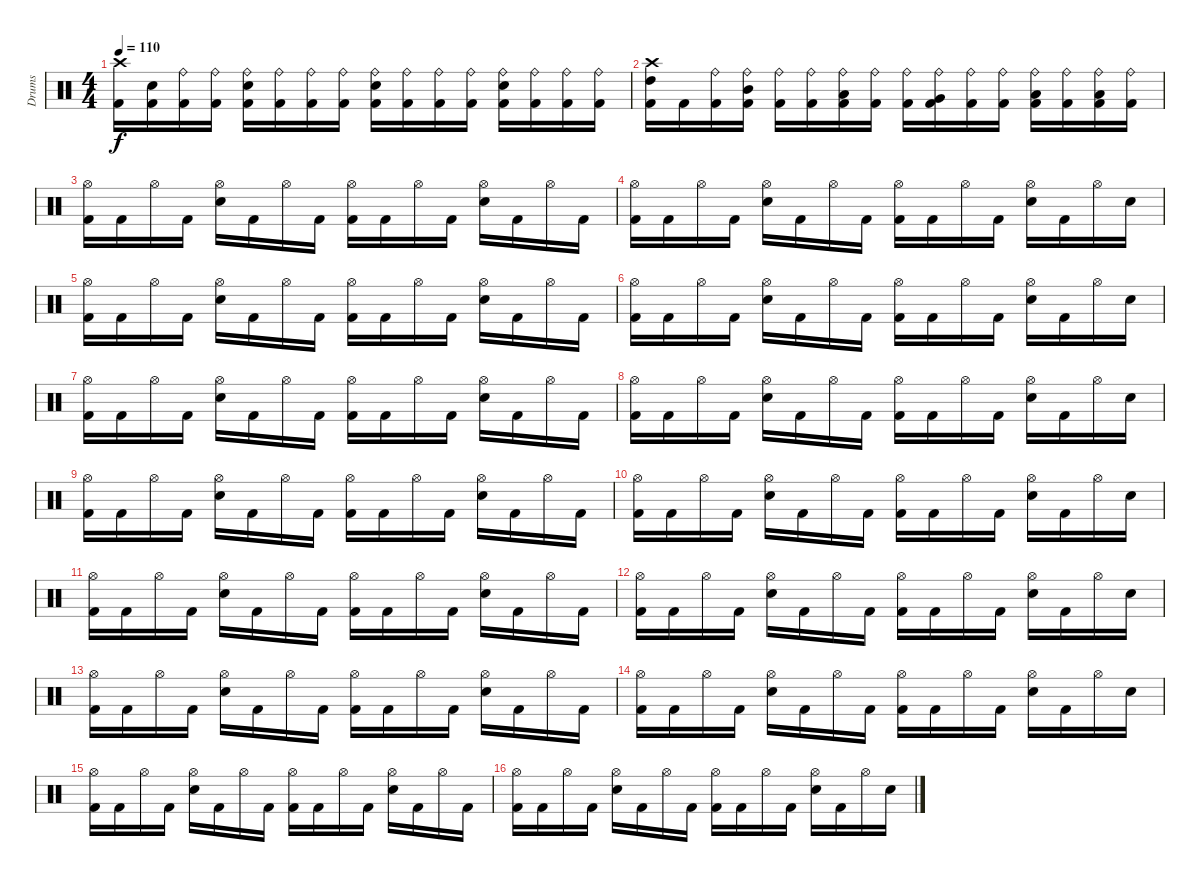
\track ("Drums" "Drums") {instrument percussion}
\staff {score}
\articulation defaults
\ts (4 4)
\tempo 110
\clef neutral
\ks c
("Crash high (hit)" "Kick (hit) 2").16{dy f} ("Electric Snare (hit)" "Kick (hit) 2").16 ("Ride (bell)" "Kick (hit) 2").16 ("Ride (bell)" "Kick (hit) 2").16 ("Ride (bell)" "Electric Snare (hit)" "Kick (hit) 2").16 ("Ride (bell)" "Kick (hit) 2").16 ("Ride (bell)" "Kick (hit) 2").16 ("Ride (bell)" "Kick (hit) 2").16 ("Ride (bell)" "Electric Snare (hit)" "Kick (hit) 2").16 ("Ride (bell)" "Kick (hit) 2").16 ("Ride (bell)" "Kick (hit) 2").16 ("Ride (bell)" "Kick (hit) 2").16 ("Ride (bell)" "Electric Snare (hit)" "Kick (hit) 2").16 ("Ride (bell)" "Kick (hit) 2").16 ("Ride (bell)" "Kick (hit) 2").16 ("Ride (bell)" "Kick (hit) 2").16 |
("Crash high (hit)" "High Tom (hit)" "Kick (hit) 2").16 "Kick (hit) 2".16 ("Ride (bell)" "Kick (hit) 2").16 ("Ride (bell)" "Mid Tom (hit)" "Kick (hit) 2").16 ("Ride (bell)" "Kick (hit) 2").16 ("Ride (bell)" "Kick (hit) 2").16 ("Ride (bell)" "Low Tom (hit)" "Kick (hit) 2").16 ("Ride (bell)" "Kick (hit) 2").16 ("Ride (bell)" "Kick (hit) 2").16 ("Ride (bell)" "Very Low Tom (hit)" "Kick (hit) 2").16 ("Ride (bell)" "Kick (hit) 2").16 ("Ride (bell)" "Kick (hit) 2").16 ("Ride (bell)" "Low Floor Tom (hit)" "Kick (hit) 2").16 ("Ride (bell)" "Kick (hit) 2").16 ("Ride (bell)" "Low Floor Tom (hit)" "Kick (hit) 2").16 ("Ride (bell)" "Kick (hit) 2").16 |
("Hi-Hat (open)" "Kick (hit) 2").16 "Kick (hit) 2".16 "Hi-Hat (open)".16 "Kick (hit) 2".16 ("Hi-Hat (open)" "Electric Snare (hit)").16 "Kick (hit) 2".16 "Hi-Hat (open)".16 "Kick (hit) 2".16 ("Hi-Hat (open)" "Kick (hit) 2").16 "Kick (hit) 2".16 "Hi-Hat (open)".16 "Kick (hit) 2".16 ("Hi-Hat (open)" "Electric Snare (hit)").16 "Kick (hit) 2".16 "Hi-Hat (open)".16 "Kick (hit) 2".16 |
("Hi-Hat (open)" "Kick (hit) 2").16 "Kick (hit) 2".16 "Hi-Hat (open)".16 "Kick (hit) 2".16 ("Hi-Hat (open)" "Electric Snare (hit)").16 "Kick (hit) 2".16 "Hi-Hat (open)".16 "Kick (hit) 2".16 ("Hi-Hat (open)" "Kick (hit) 2").16 "Kick (hit) 2".16 "Hi-Hat (open)".16 "Kick (hit) 2".16 ("Hi-Hat (open)" "Electric Snare (hit)").16 "Kick (hit) 2".16 "Hi-Hat (open)".16 "Electric Snare (hit)".16 |
("Hi-Hat (open)" "Kick (hit) 2").16 "Kick (hit) 2".16 "Hi-Hat (open)".16 "Kick (hit) 2".16 ("Hi-Hat (open)" "Electric Snare (hit)").16 "Kick (hit) 2".16 "Hi-Hat (open)".16 "Kick (hit) 2".16 ("Hi-Hat (open)" "Kick (hit) 2").16 "Kick (hit) 2".16 "Hi-Hat (open)".16 "Kick (hit) 2".16 ("Hi-Hat (open)" "Electric Snare (hit)").16 "Kick (hit) 2".16 "Hi-Hat (open)".16 "Kick (hit) 2".16 |
("Hi-Hat (open)" "Kick (hit) 2").16 "Kick (hit) 2".16 "Hi-Hat (open)".16 "Kick (hit) 2".16 ("Hi-Hat (open)" "Electric Snare (hit)").16 "Kick (hit) 2".16 "Hi-Hat (open)".16 "Kick (hit) 2".16 ("Hi-Hat (open)" "Kick (hit) 2").16 "Kick (hit) 2".16 "Hi-Hat (open)".16 "Kick (hit) 2".16 ("Hi-Hat (open)" "Electric Snare (hit)").16 "Kick (hit) 2".16 "Hi-Hat (open)".16 "Electric Snare (hit)".16 |
("Hi-Hat (open)" "Kick (hit) 2").16 "Kick (hit) 2".16 "Hi-Hat (open)".16 "Kick (hit) 2".16 ("Hi-Hat (open)" "Electric Snare (hit)").16 "Kick (hit) 2".16 "Hi-Hat (open)".16 "Kick (hit) 2".16 ("Hi-Hat (open)" "Kick (hit) 2").16 "Kick (hit) 2".16 "Hi-Hat (open)".16 "Kick (hit) 2".16 ("Hi-Hat (open)" "Electric Snare (hit)").16 "Kick (hit) 2".16 "Hi-Hat (open)".16 "Kick (hit) 2".16 |
("Hi-Hat (open)" "Kick (hit) 2").16 "Kick (hit) 2".16 "Hi-Hat (open)".16 "Kick (hit) 2".16 ("Hi-Hat (open)" "Electric Snare (hit)").16 "Kick (hit) 2".16 "Hi-Hat (open)".16 "Kick (hit) 2".16 ("Hi-Hat (open)" "Kick (hit) 2").16 "Kick (hit) 2".16 "Hi-Hat (open)".16 "Kick (hit) 2".16 ("Hi-Hat (open)" "Electric Snare (hit)").16 "Kick (hit) 2".16 "Hi-Hat (open)".16 "Electric Snare (hit)".16 |
("Hi-Hat (open)" "Kick (hit) 2").16 "Kick (hit) 2".16 "Hi-Hat (open)".16 "Kick (hit) 2".16 ("Hi-Hat (open)" "Electric Snare (hit)").16 "Kick (hit) 2".16 "Hi-Hat (open)".16 "Kick (hit) 2".16 ("Hi-Hat (open)" "Kick (hit) 2").16 "Kick (hit) 2".16 "Hi-Hat (open)".16 "Kick (hit) 2".16 ("Hi-Hat (open)" "Electric Snare (hit)").16 "Kick (hit) 2".16 "Hi-Hat (open)".16 "Kick (hit) 2".16 |
("Hi-Hat (open)" "Kick (hit) 2").16 "Kick (hit) 2".16 "Hi-Hat (open)".16 "Kick (hit) 2".16 ("Hi-Hat (open)" "Electric Snare (hit)").16 "Kick (hit) 2".16 "Hi-Hat (open)".16 "Kick (hit) 2".16 ("Hi-Hat (open)" "Kick (hit) 2").16 "Kick (hit) 2".16 "Hi-Hat (open)".16 "Kick (hit) 2".16 ("Hi-Hat (open)" "Electric Snare (hit)").16 "Kick (hit) 2".16 "Hi-Hat (open)".16 "Electric Snare (hit)".16 |
("Hi-Hat (open)" "Kick (hit) 2").16 "Kick (hit) 2".16 "Hi-Hat (open)".16 "Kick (hit) 2".16 ("Hi-Hat (open)" "Electric Snare (hit)").16 "Kick (hit) 2".16 "Hi-Hat (open)".16 "Kick (hit) 2".16 ("Hi-Hat (open)" "Kick (hit) 2").16 "Kick (hit) 2".16 "Hi-Hat (open)".16 "Kick (hit) 2".16 ("Hi-Hat (open)" "Electric Snare (hit)").16 "Kick (hit) 2".16 "Hi-Hat (open)".16 "Kick (hit) 2".16 |
("Hi-Hat (open)" "Kick (hit) 2").16 "Kick (hit) 2".16 "Hi-Hat (open)".16 "Kick (hit) 2".16 ("Hi-Hat (open)" "Electric Snare (hit)").16 "Kick (hit) 2".16 "Hi-Hat (open)".16 "Kick (hit) 2".16 ("Hi-Hat (open)" "Kick (hit) 2").16 "Kick (hit) 2".16 "Hi-Hat (open)".16 "Kick (hit) 2".16 ("Hi-Hat (open)" "Electric Snare (hit)").16 "Kick (hit) 2".16 "Hi-Hat (open)".16 "Electric Snare (hit)".16 |
("Hi-Hat (open)" "Kick (hit) 2").16 "Kick (hit) 2".16 "Hi-Hat (open)".16 "Kick (hit) 2".16 ("Hi-Hat (open)" "Electric Snare (hit)").16 "Kick (hit) 2".16 "Hi-Hat (open)".16 "Kick (hit) 2".16 ("Hi-Hat (open)" "Kick (hit) 2").16 "Kick (hit) 2".16 "Hi-Hat (open)".16 "Kick (hit) 2".16 ("Hi-Hat (open)" "Electric Snare (hit)").16 "Kick (hit) 2".16 "Hi-Hat (open)".16 "Kick (hit) 2".16 |
("Hi-Hat (open)" "Kick (hit) 2").16 "Kick (hit) 2".16 "Hi-Hat (open)".16 "Kick (hit) 2".16 ("Hi-Hat (open)" "Electric Snare (hit)").16 "Kick (hit) 2".16 "Hi-Hat (open)".16 "Kick (hit) 2".16 ("Hi-Hat (open)" "Kick (hit) 2").16 "Kick (hit) 2".16 "Hi-Hat (open)".16 "Kick (hit) 2".16 ("Hi-Hat (open)" "Electric Snare (hit)").16 "Kick (hit) 2".16 "Hi-Hat (open)".16 "Electric Snare (hit)".16 |
("Hi-Hat (open)" "Kick (hit) 2").16 "Kick (hit) 2".16 "Hi-Hat (open)".16 "Kick (hit) 2".16 ("Hi-Hat (open)" "Electric Snare (hit)").16 "Kick (hit) 2".16 "Hi-Hat (open)".16 "Kick (hit) 2".16 ("Hi-Hat (open)" "Kick (hit) 2").16 "Kick (hit) 2".16 "Hi-Hat (open)".16 "Kick (hit) 2".16 ("Hi-Hat (open)" "Electric Snare (hit)").16 "Kick (hit) 2".16 "Hi-Hat (open)".16 "Kick (hit) 2".16 |
("Hi-Hat (open)" "Kick (hit) 2").16 "Kick (hit) 2".16 "Hi-Hat (open)".16 "Kick (hit) 2".16 ("Hi-Hat (open)" "Electric Snare (hit)").16 "Kick (hit) 2".16 "Hi-Hat (open)".16 "Kick (hit) 2".16 ("Hi-Hat (open)" "Kick (hit) 2").16 "Kick (hit) 2".16 "Hi-Hat (open)".16 "Kick (hit) 2".16 ("Hi-Hat (open)" "Electric Snare (hit)").16 "Kick (hit) 2".16 "Hi-Hat (open)".16 "Electric Snare (hit)".16
